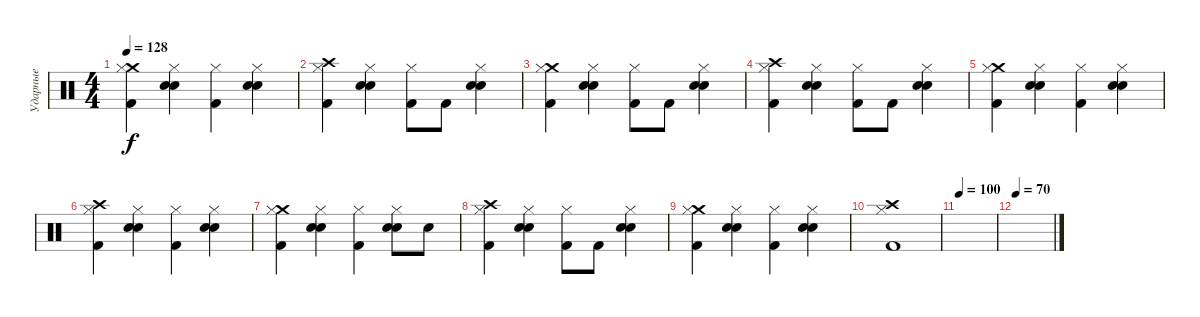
\track ("Ударные" "Ударные") {instrument percussion}
\staff {score}
\articulation defaults
\ts (4 4)
\tempo 128
\clef neutral
\ks c
("Crash medium (hit)" "Hi-Hat (closed)" "Kick (hit) 2").4{dy f} ("Electric Snare (hit)" "Snare (hit) 2" "Hi-Hat (closed)").4 ("Hi-Hat (closed)" "Kick (hit) 2").4 ("Electric Snare (hit)" "Snare (hit) 2" "Hi-Hat (closed)").4 |
("Crash high (hit)" "Hi-Hat (closed)" "Kick (hit) 2").4 ("Electric Snare (hit)" "Snare (hit) 2" "Hi-Hat (closed)").4 ("Hi-Hat (closed)" "Kick (hit) 2").8 "Kick (hit) 2".8 ("Electric Snare (hit)" "Snare (hit) 2" "Hi-Hat (closed)").4 |
("Crash medium (hit)" "Hi-Hat (closed)" "Kick (hit) 2").4 ("Electric Snare (hit)" "Snare (hit) 2" "Hi-Hat (closed)").4 ("Hi-Hat (closed)" "Kick (hit) 2").8 "Kick (hit) 2".8 ("Electric Snare (hit)" "Snare (hit) 2" "Hi-Hat (closed)").4 |
("Crash high (hit)" "Hi-Hat (closed)" "Kick (hit) 2").4 ("Electric Snare (hit)" "Snare (hit) 2" "Hi-Hat (closed)").4 ("Hi-Hat (closed)" "Kick (hit) 2").8 "Kick (hit) 2".8 ("Electric Snare (hit)" "Snare (hit) 2" "Hi-Hat (closed)").4 |
("Crash medium (hit)" "Hi-Hat (closed)" "Kick (hit) 2").4 ("Electric Snare (hit)" "Snare (hit) 2" "Hi-Hat (closed)").4 ("Hi-Hat (closed)" "Kick (hit) 2").4 ("Electric Snare (hit)" "Snare (hit) 2" "Hi-Hat (closed)").4 |
("Crash high (hit)" "Hi-Hat (closed)" "Kick (hit) 2").4 ("Electric Snare (hit)" "Snare (hit) 2" "Hi-Hat (closed)").4 ("Hi-Hat (closed)" "Kick (hit) 2").4 ("Electric Snare (hit)" "Snare (hit) 2" "Hi-Hat (closed)").4 |
("Crash medium (hit)" "Hi-Hat (closed)" "Kick (hit) 2").4 ("Electric Snare (hit)" "Snare (hit) 2" "Hi-Hat (closed)").4 ("Hi-Hat (closed)" "Kick (hit) 2").4 ("Electric Snare (hit)" "Snare (hit) 2" "Hi-Hat (closed)").8 "Electric Snare (hit)".8 |
("Crash high (hit)" "Hi-Hat (closed)" "Kick (hit) 2").4 ("Electric Snare (hit)" "Snare (hit) 2" "Hi-Hat (closed)").4 ("Hi-Hat (closed)" "Kick (hit) 2").8 "Kick (hit) 2".8 ("Electric Snare (hit)" "Snare (hit) 2" "Hi-Hat (closed)").4 |
("Crash medium (hit)" "Hi-Hat (closed)" "Kick (hit) 2").4 ("Electric Snare (hit)" "Snare (hit) 2" "Hi-Hat (closed)").4 ("Hi-Hat (closed)" "Kick (hit) 2").4 ("Electric Snare (hit)" "Snare (hit) 2" "Hi-Hat (closed)").4 |
("Crash high (hit)" "Hi-Hat (closed)" "Kick (hit) 2").1 |
\tempo 100
|
\tempo 70
